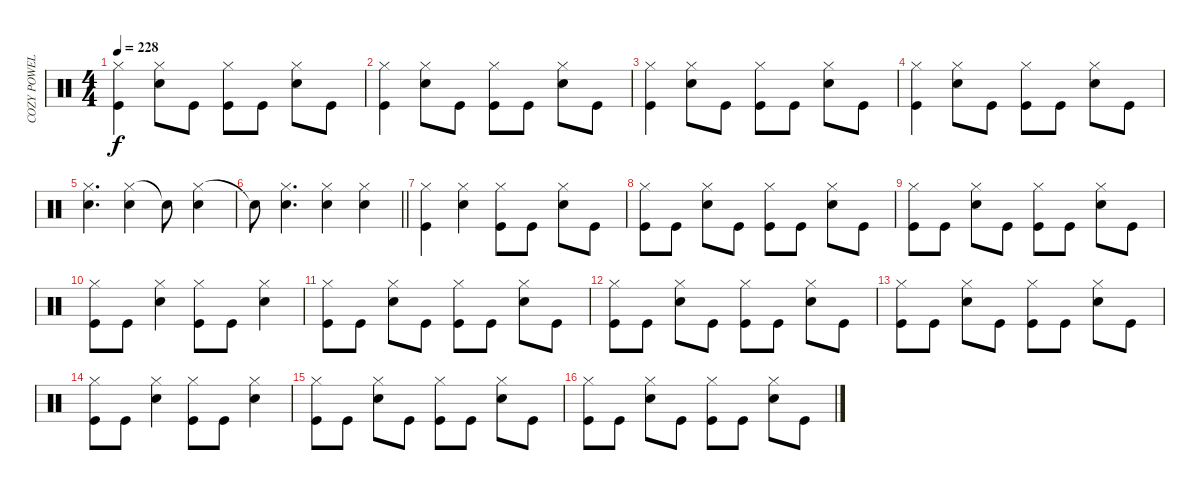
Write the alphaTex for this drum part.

\track ("COZY POWELL" "COZY POWEL") {instrument percussion}
\staff {score}
\articulation defaults
\ts (4 4)
\tempo 228
\clef neutral
\ks c
("Hi-Hat (closed)" "Kick (hit)").4{dy f} ("Hi-Hat (closed)" "Snare (hit) 2").8 "Kick (hit)".8 ("Hi-Hat (closed)" "Kick (hit)").8 "Kick (hit)".8 ("Hi-Hat (closed)" "Snare (hit) 2").8 "Kick (hit)".8 |
("Hi-Hat (closed)" "Kick (hit)").4 ("Hi-Hat (closed)" "Snare (hit) 2").8 "Kick (hit)".8 ("Hi-Hat (closed)" "Kick (hit)").8 "Kick (hit)".8 ("Hi-Hat (closed)" "Snare (hit) 2").8 "Kick (hit)".8 |
("Hi-Hat (closed)" "Kick (hit)").4 ("Hi-Hat (closed)" "Snare (hit) 2").8 "Kick (hit)".8 ("Hi-Hat (closed)" "Kick (hit)").8 "Kick (hit)".8 ("Hi-Hat (closed)" "Snare (hit) 2").8 "Kick (hit)".8 |
("Hi-Hat (closed)" "Kick (hit)").4 ("Hi-Hat (closed)" "Snare (hit) 2").8 "Kick (hit)".8 ("Hi-Hat (closed)" "Kick (hit)").8 "Kick (hit)".8 ("Hi-Hat (closed)" "Snare (hit) 2").8 "Kick (hit)".8 |
("Hi-Hat (closed)" "Snare (hit) 2").4{d} ("Hi-Hat (closed)" "Snare (hit) 2").4 "Snare (hit)"{t}.8 ("Hi-Hat (closed)" "Snare (hit) 2").4 |
\barLineRight lightlight "Snare (hit)"{t}.8
("Hi-Hat (closed)" "Snare (hit) 2").4{d} ("Hi-Hat (closed)" "Snare (hit) 2").4 ("Hi-Hat (closed)" "Snare (hit) 2").4 |
("Hi-Hat (closed)" "Kick (hit)").4 ("Hi-Hat (closed)" "Snare (hit) 2").4 ("Hi-Hat (closed)" "Kick (hit)").8 "Kick (hit)".8 ("Hi-Hat (closed)" "Snare (hit) 2").8 "Kick (hit)".8 |
("Hi-Hat (closed)" "Kick (hit)").8 "Kick (hit)".8 ("Hi-Hat (closed)" "Snare (hit) 2").8 "Kick (hit)".8 ("Hi-Hat (closed)" "Kick (hit)").8 "Kick (hit)".8 ("Hi-Hat (closed)" "Snare (hit) 2").8 "Kick (hit)".8 |
("Hi-Hat (closed)" "Kick (hit)").8 "Kick (hit)".8 ("Hi-Hat (closed)" "Snare (hit) 2").8 "Kick (hit)".8 ("Hi-Hat (closed)" "Kick (hit)").8 "Kick (hit)".8 ("Hi-Hat (closed)" "Snare (hit) 2").8 "Kick (hit)".8 |
("Hi-Hat (closed)" "Kick (hit)").8 "Kick (hit)".8 ("Hi-Hat (closed)" "Snare (hit) 2").4 ("Hi-Hat (closed)" "Kick (hit)").8 "Kick (hit)".8 ("Hi-Hat (closed)" "Snare (hit) 2").4 |
("Hi-Hat (closed)" "Kick (hit)").8 "Kick (hit)".8 ("Hi-Hat (closed)" "Snare (hit) 2").8 "Kick (hit)".8 ("Hi-Hat (closed)" "Kick (hit)").8 "Kick (hit)".8 ("Hi-Hat (closed)" "Snare (hit) 2").8 "Kick (hit)".8 |
("Hi-Hat (closed)" "Kick (hit)").8 "Kick (hit)".8 ("Hi-Hat (closed)" "Snare (hit) 2").8 "Kick (hit)".8 ("Hi-Hat (closed)" "Kick (hit)").8 "Kick (hit)".8 ("Hi-Hat (closed)" "Snare (hit) 2").8 "Kick (hit)".8 |
("Hi-Hat (closed)" "Kick (hit)").8 "Kick (hit)".8 ("Hi-Hat (closed)" "Snare (hit) 2").8 "Kick (hit)".8 ("Hi-Hat (closed)" "Kick (hit)").8 "Kick (hit)".8 ("Hi-Hat (closed)" "Snare (hit) 2").8 "Kick (hit)".8 |
("Hi-Hat (closed)" "Kick (hit)").8 "Kick (hit)".8 ("Hi-Hat (closed)" "Snare (hit) 2").4 ("Hi-Hat (closed)" "Kick (hit)").8 "Kick (hit)".8 ("Hi-Hat (closed)" "Snare (hit) 2").4 |
("Hi-Hat (closed)" "Kick (hit)").8 "Kick (hit)".8 ("Hi-Hat (closed)" "Snare (hit) 2").8 "Kick (hit)".8 ("Hi-Hat (closed)" "Kick (hit)").8 "Kick (hit)".8 ("Hi-Hat (closed)" "Snare (hit) 2").8 "Kick (hit)".8 |
("Hi-Hat (closed)" "Kick (hit)").8 "Kick (hit)".8 ("Hi-Hat (closed)" "Snare (hit) 2").8 "Kick (hit)".8 ("Hi-Hat (closed)" "Kick (hit)").8 "Kick (hit)".8 ("Hi-Hat (closed)" "Snare (hit) 2").8 "Kick (hit)".8
